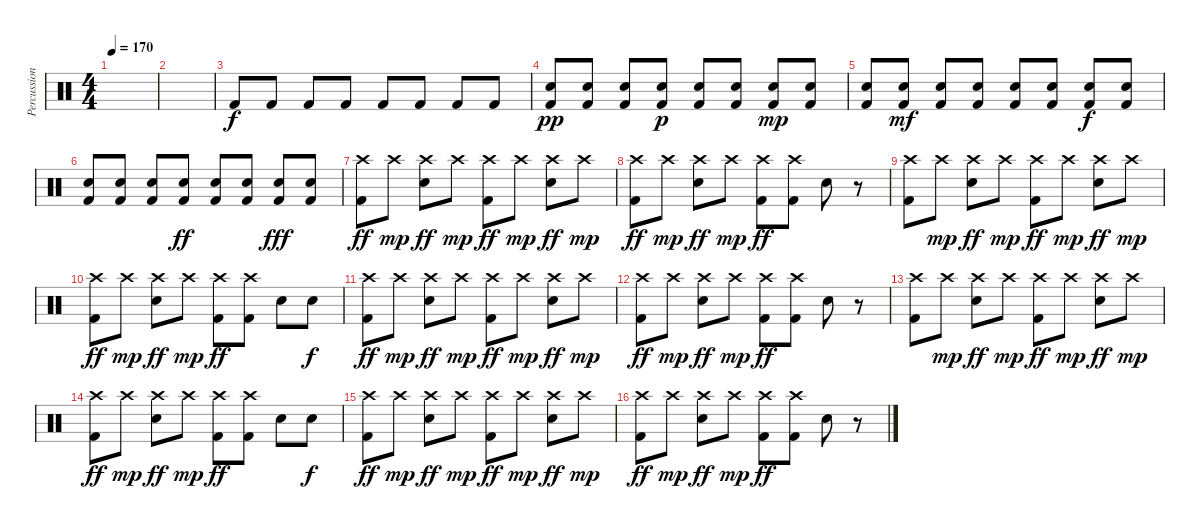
\track ("Percussion" "Percussion") {instrument percussion}
\staff {score}
\articulation defaults
\ts (4 4)
\tempo 170
\clef neutral
\ks c
|
|
"Kick (hit) 2".8{dy f} "Kick (hit) 2".8 "Kick (hit) 2".8 "Kick (hit) 2".8 "Kick (hit) 2".8 "Kick (hit) 2".8 "Kick (hit) 2".8 "Kick (hit) 2".8 |
("Electric Snare (hit)" "Kick (hit) 2").8{dy pp} ("Electric Snare (hit)" "Kick (hit) 2").8 ("Electric Snare (hit)" "Kick (hit) 2").8 ("Electric Snare (hit)" "Kick (hit) 2").8{dy p} ("Electric Snare (hit)" "Kick (hit) 2").8 ("Electric Snare (hit)" "Kick (hit) 2").8 ("Electric Snare (hit)" "Kick (hit) 2").8{dy mp} ("Electric Snare (hit)" "Kick (hit) 2").8 |
("Electric Snare (hit)" "Kick (hit) 2").8 ("Electric Snare (hit)" "Kick (hit) 2").8{dy mf} ("Electric Snare (hit)" "Kick (hit) 2").8 ("Electric Snare (hit)" "Kick (hit) 2").8 ("Electric Snare (hit)" "Kick (hit) 2").8 ("Electric Snare (hit)" "Kick (hit) 2").8 ("Electric Snare (hit)" "Kick (hit) 2").8{dy f} ("Electric Snare (hit)" "Kick (hit) 2").8 |
("Electric Snare (hit)" "Kick (hit) 2").8 ("Electric Snare (hit)" "Kick (hit) 2").8 ("Electric Snare (hit)" "Kick (hit) 2").8 ("Electric Snare (hit)" "Kick (hit) 2").8{dy ff} ("Electric Snare (hit)" "Kick (hit) 2").8 ("Electric Snare (hit)" "Kick (hit) 2").8 ("Electric Snare (hit)" "Kick (hit) 2").8{dy fff} ("Electric Snare (hit)" "Kick (hit) 2").8 |
("Crash high (hit)" "Kick (hit) 2").8{dy ff} "Crash high (hit)".8{dy mp} ("Crash high (hit)" "Electric Snare (hit)").8{dy ff} "Crash high (hit)".8{dy mp} ("Crash high (hit)" "Kick (hit) 2").8{dy ff} "Crash high (hit)".8{dy mp} ("Crash high (hit)" "Electric Snare (hit)").8{dy ff} "Crash high (hit)".8{dy mp} |
("Crash high (hit)" "Kick (hit) 2").8{dy ff} "Crash high (hit)".8{dy mp} ("Crash high (hit)" "Electric Snare (hit)").8{dy ff} "Crash high (hit)".8{dy mp} ("Crash high (hit)" "Kick (hit) 2").8{dy ff} ("Crash high (hit)" "Kick (hit) 2").8 "Electric Snare (hit)".8 r.8 |
("Crash high (hit)" "Kick (hit) 2").8 "Crash high (hit)".8{dy mp} ("Crash high (hit)" "Electric Snare (hit)").8{dy ff} "Crash high (hit)".8{dy mp} ("Crash high (hit)" "Kick (hit) 2").8{dy ff} "Crash high (hit)".8{dy mp} ("Crash high (hit)" "Electric Snare (hit)").8{dy ff} "Crash high (hit)".8{dy mp} |
("Crash high (hit)" "Kick (hit) 2").8{dy ff} "Crash high (hit)".8{dy mp} ("Crash high (hit)" "Electric Snare (hit)").8{dy ff} "Crash high (hit)".8{dy mp} ("Crash high (hit)" "Kick (hit) 2").8{dy ff} ("Crash high (hit)" "Kick (hit) 2").8 "Electric Snare (hit)".8 "Electric Snare (hit)".8{dy f} |
("Crash high (hit)" "Kick (hit) 2").8{dy ff} "Crash high (hit)".8{dy mp} ("Crash high (hit)" "Electric Snare (hit)").8{dy ff} "Crash high (hit)".8{dy mp} ("Crash high (hit)" "Kick (hit) 2").8{dy ff} "Crash high (hit)".8{dy mp} ("Crash high (hit)" "Electric Snare (hit)").8{dy ff} "Crash high (hit)".8{dy mp} |
("Crash high (hit)" "Kick (hit) 2").8{dy ff} "Crash high (hit)".8{dy mp} ("Crash high (hit)" "Electric Snare (hit)").8{dy ff} "Crash high (hit)".8{dy mp} ("Crash high (hit)" "Kick (hit) 2").8{dy ff} ("Crash high (hit)" "Kick (hit) 2").8 "Electric Snare (hit)".8 r.8 |
("Crash high (hit)" "Kick (hit) 2").8 "Crash high (hit)".8{dy mp} ("Crash high (hit)" "Electric Snare (hit)").8{dy ff} "Crash high (hit)".8{dy mp} ("Crash high (hit)" "Kick (hit) 2").8{dy ff} "Crash high (hit)".8{dy mp} ("Crash high (hit)" "Electric Snare (hit)").8{dy ff} "Crash high (hit)".8{dy mp} |
("Crash high (hit)" "Kick (hit) 2").8{dy ff} "Crash high (hit)".8{dy mp} ("Crash high (hit)" "Electric Snare (hit)").8{dy ff} "Crash high (hit)".8{dy mp} ("Crash high (hit)" "Kick (hit) 2").8{dy ff} ("Crash high (hit)" "Kick (hit) 2").8 "Electric Snare (hit)".8 "Electric Snare (hit)".8{dy f} |
("Crash high (hit)" "Kick (hit) 2").8{dy ff} "Crash high (hit)".8{dy mp} ("Crash high (hit)" "Electric Snare (hit)").8{dy ff} "Crash high (hit)".8{dy mp} ("Crash high (hit)" "Kick (hit) 2").8{dy ff} "Crash high (hit)".8{dy mp} ("Crash high (hit)" "Electric Snare (hit)").8{dy ff} "Crash high (hit)".8{dy mp} |
("Crash high (hit)" "Kick (hit) 2").8{dy ff} "Crash high (hit)".8{dy mp} ("Crash high (hit)" "Electric Snare (hit)").8{dy ff} "Crash high (hit)".8{dy mp} ("Crash high (hit)" "Kick (hit) 2").8{dy ff} ("Crash high (hit)" "Kick (hit) 2").8 "Electric Snare (hit)".8 r.8
